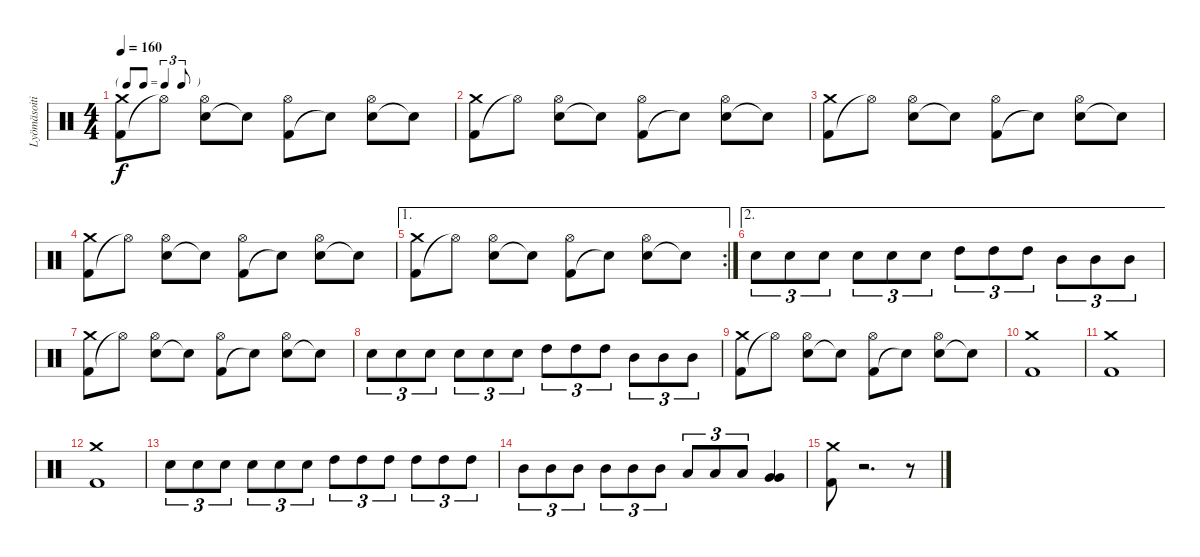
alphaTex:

\track ("Lyömäsoitin" "Lyömäsoiti") {instrument percussion}
\staff {score}
\articulation defaults
\ts (4 4)
\tf triplet8th
\tempo 160
\clef neutral
\ks c
("Kick (hit) 2" "Crash medium (hit)").8{dy f} "Hi-Hat (open)"{t}.8 ("Electric Snare (hit)" "Hi-Hat (open)").8 "Snare (hit)"{t}.8 ("Kick (hit) 2" "Hi-Hat (open)").8 "Snare (hit)"{t}.8 ("Electric Snare (hit)" "Hi-Hat (open)").8 "Snare (hit)"{t}.8 |
("Kick (hit) 2" "Crash medium (hit)").8 "Hi-Hat (open)"{t}.8 ("Electric Snare (hit)" "Hi-Hat (open)").8 "Snare (hit)"{t}.8 ("Kick (hit) 2" "Hi-Hat (open)").8 "Snare (hit)"{t}.8 ("Electric Snare (hit)" "Hi-Hat (open)").8 "Snare (hit)"{t}.8 |
("Kick (hit) 2" "Crash medium (hit)").8 "Hi-Hat (open)"{t}.8 ("Electric Snare (hit)" "Hi-Hat (open)").8 "Snare (hit)"{t}.8 ("Kick (hit) 2" "Hi-Hat (open)").8 "Snare (hit)"{t}.8 ("Electric Snare (hit)" "Hi-Hat (open)").8 "Snare (hit)"{t}.8 |
("Kick (hit) 2" "Crash medium (hit)").8 "Hi-Hat (open)"{t}.8 ("Electric Snare (hit)" "Hi-Hat (open)").8 "Snare (hit)"{t}.8 ("Kick (hit) 2" "Hi-Hat (open)").8 "Snare (hit)"{t}.8 ("Electric Snare (hit)" "Hi-Hat (open)").8 "Electric Snare (hit)"{t}.8 |
\ae 1
\rc 2
("Kick (hit) 2" "Crash medium (hit)").8 "Hi-Hat (open)"{t}.8 ("Electric Snare (hit)" "Hi-Hat (open)").8 "Snare (hit)"{t}.8 ("Kick (hit) 2" "Hi-Hat (open)").8 "Snare (hit)"{t}.8 ("Electric Snare (hit)" "Hi-Hat (open)").8 "Electric Snare (hit)"{t}.8 |
\ae 2 "Electric Snare (hit)".8{tu (3 2)} "Electric Snare (hit)".8{tu (3 2)} "Electric Snare (hit)".8{tu (3 2)} "Electric Snare (hit)".8{tu (3 2)} "Electric Snare (hit)".8{tu (3 2)} "Electric Snare (hit)".8{tu (3 2)} "High Tom (hit)".8{tu (3 2)} "High Tom (hit)".8{tu (3 2)} "High Tom (hit)".8{tu (3 2)} "Mid Tom (hit)".8{tu (3 2)} "Mid Tom (hit)".8{tu (3 2)} "Mid Tom (hit)".8{tu (3 2)}
|
("Kick (hit) 2" "Crash medium (hit)").8 "Hi-Hat (open)"{t}.8 ("Electric Snare (hit)" "Hi-Hat (open)").8 "Snare (hit)"{t}.8 ("Kick (hit) 2" "Hi-Hat (open)").8 "Snare (hit)"{t}.8 ("Electric Snare (hit)" "Hi-Hat (open)").8 "Snare (hit)"{t}.8 |
"Electric Snare (hit)".8{tu (3 2)} "Electric Snare (hit)".8{tu (3 2)} "Electric Snare (hit)".8{tu (3 2)} "Electric Snare (hit)".8{tu (3 2)} "Electric Snare (hit)".8{tu (3 2)} "Electric Snare (hit)".8{tu (3 2)} "High Tom (hit)".8{tu (3 2)} "High Tom (hit)".8{tu (3 2)} "High Tom (hit)".8{tu (3 2)} "Mid Tom (hit)".8{tu (3 2)} "Mid Tom (hit)".8{tu (3 2)} "Mid Tom (hit)".8{tu (3 2)} |
("Kick (hit) 2" "Crash medium (hit)").8 "Hi-Hat (open)"{t}.8 ("Electric Snare (hit)" "Hi-Hat (open)").8 "Snare (hit)"{t}.8 ("Kick (hit) 2" "Hi-Hat (open)").8 "Snare (hit)"{t}.8 ("Electric Snare (hit)" "Hi-Hat (open)").8 "Snare (hit)"{t}.8 |
("Kick (hit) 2" "Crash medium (hit)").1 |
("Kick (hit) 2" "Crash medium (hit)").1 |
("Kick (hit) 2" "Crash medium (hit)").1 |
"Electric Snare (hit)".8{tu (3 2)} "Electric Snare (hit)".8{tu (3 2)} "Electric Snare (hit)".8{tu (3 2)} "Electric Snare (hit)".8{tu (3 2)} "Electric Snare (hit)".8{tu (3 2)} "Electric Snare (hit)".8{tu (3 2)} "High Tom (hit)".8{tu (3 2)} "High Tom (hit)".8{tu (3 2)} "High Tom (hit)".8{tu (3 2)} "High Tom (hit)".8{tu (3 2)} "High Tom (hit)".8{tu (3 2)} "High Tom (hit)".8{tu (3 2)} |
"Mid Tom (hit)".8{tu (3 2)} "Mid Tom (hit)".8{tu (3 2)} "Mid Tom (hit)".8{tu (3 2)} "Mid Tom (hit)".8{tu (3 2)} "Mid Tom (hit)".8{tu (3 2)} "Mid Tom (hit)".8{tu (3 2)} "Low Tom (hit)".8{tu (3 2)} "Low Tom (hit)".8{tu (3 2)} "Low Tom (hit)".8{tu (3 2)} ("Very Low Tom (hit)" "Very Low Tom (hit)").4 |
("Kick (hit) 2" "Crash medium (hit)").8 r.2{d} r.8
